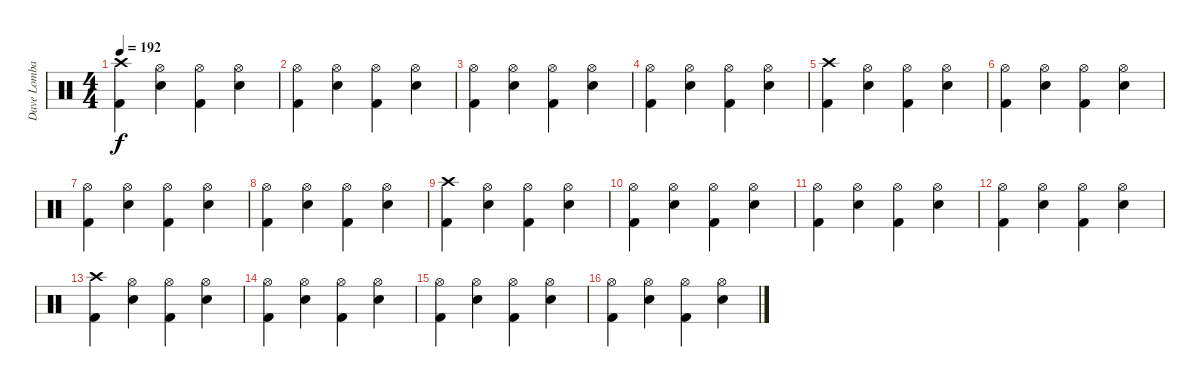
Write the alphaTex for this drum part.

\track ("Dave Lombardo" "Dave Lomba") {instrument percussion}
\staff {score}
\articulation defaults
\ts (4 4)
\tempo 192
\clef neutral
\ks c
("Crash high (hit)" "Kick (hit) 2").4{dy f} ("Hi-Hat (open)" "Electric Snare (hit)").4 ("Hi-Hat (open)" "Kick (hit) 2").4 ("Hi-Hat (open)" "Electric Snare (hit)").4 |
("Hi-Hat (open)" "Kick (hit) 2").4 ("Hi-Hat (open)" "Electric Snare (hit)").4 ("Hi-Hat (open)" "Kick (hit) 2").4 ("Hi-Hat (open)" "Electric Snare (hit)").4 |
("Hi-Hat (open)" "Kick (hit) 2").4 ("Hi-Hat (open)" "Electric Snare (hit)").4 ("Hi-Hat (open)" "Kick (hit) 2").4 ("Hi-Hat (open)" "Electric Snare (hit)").4 |
("Hi-Hat (open)" "Kick (hit) 2").4 ("Hi-Hat (open)" "Electric Snare (hit)").4 ("Hi-Hat (open)" "Kick (hit) 2").4 ("Hi-Hat (open)" "Electric Snare (hit)").4 |
("Crash high (hit)" "Kick (hit) 2").4 ("Hi-Hat (open)" "Electric Snare (hit)").4 ("Hi-Hat (open)" "Kick (hit) 2").4 ("Hi-Hat (open)" "Electric Snare (hit)").4 |
("Hi-Hat (open)" "Kick (hit) 2").4 ("Hi-Hat (open)" "Electric Snare (hit)").4 ("Hi-Hat (open)" "Kick (hit) 2").4 ("Hi-Hat (open)" "Electric Snare (hit)").4 |
("Hi-Hat (open)" "Kick (hit) 2").4 ("Hi-Hat (open)" "Electric Snare (hit)").4 ("Hi-Hat (open)" "Kick (hit) 2").4 ("Hi-Hat (open)" "Electric Snare (hit)").4 |
("Hi-Hat (open)" "Kick (hit) 2").4 ("Hi-Hat (open)" "Electric Snare (hit)").4 ("Hi-Hat (open)" "Kick (hit) 2").4 ("Hi-Hat (open)" "Electric Snare (hit)").4 |
("Crash high (hit)" "Kick (hit) 2").4 ("Hi-Hat (open)" "Electric Snare (hit)").4 ("Hi-Hat (open)" "Kick (hit) 2").4 ("Hi-Hat (open)" "Electric Snare (hit)").4 |
("Hi-Hat (open)" "Kick (hit) 2").4 ("Hi-Hat (open)" "Electric Snare (hit)").4 ("Hi-Hat (open)" "Kick (hit) 2").4 ("Hi-Hat (open)" "Electric Snare (hit)").4 |
("Hi-Hat (open)" "Kick (hit) 2").4 ("Hi-Hat (open)" "Electric Snare (hit)").4 ("Hi-Hat (open)" "Kick (hit) 2").4 ("Hi-Hat (open)" "Electric Snare (hit)").4 |
("Hi-Hat (open)" "Kick (hit) 2").4 ("Hi-Hat (open)" "Electric Snare (hit)").4 ("Hi-Hat (open)" "Kick (hit) 2").4 ("Hi-Hat (open)" "Electric Snare (hit)").4 |
("Crash high (hit)" "Kick (hit) 2").4 ("Hi-Hat (open)" "Electric Snare (hit)").4 ("Hi-Hat (open)" "Kick (hit) 2").4 ("Hi-Hat (open)" "Electric Snare (hit)").4 |
("Hi-Hat (open)" "Kick (hit) 2").4 ("Hi-Hat (open)" "Electric Snare (hit)").4 ("Hi-Hat (open)" "Kick (hit) 2").4 ("Hi-Hat (open)" "Electric Snare (hit)").4 |
("Hi-Hat (open)" "Kick (hit) 2").4 ("Hi-Hat (open)" "Electric Snare (hit)").4 ("Hi-Hat (open)" "Kick (hit) 2").4 ("Hi-Hat (open)" "Electric Snare (hit)").4 |
("Hi-Hat (open)" "Kick (hit) 2").4 ("Hi-Hat (open)" "Electric Snare (hit)").4 ("Hi-Hat (open)" "Kick (hit) 2").4 ("Hi-Hat (open)" "Electric Snare (hit)").4
